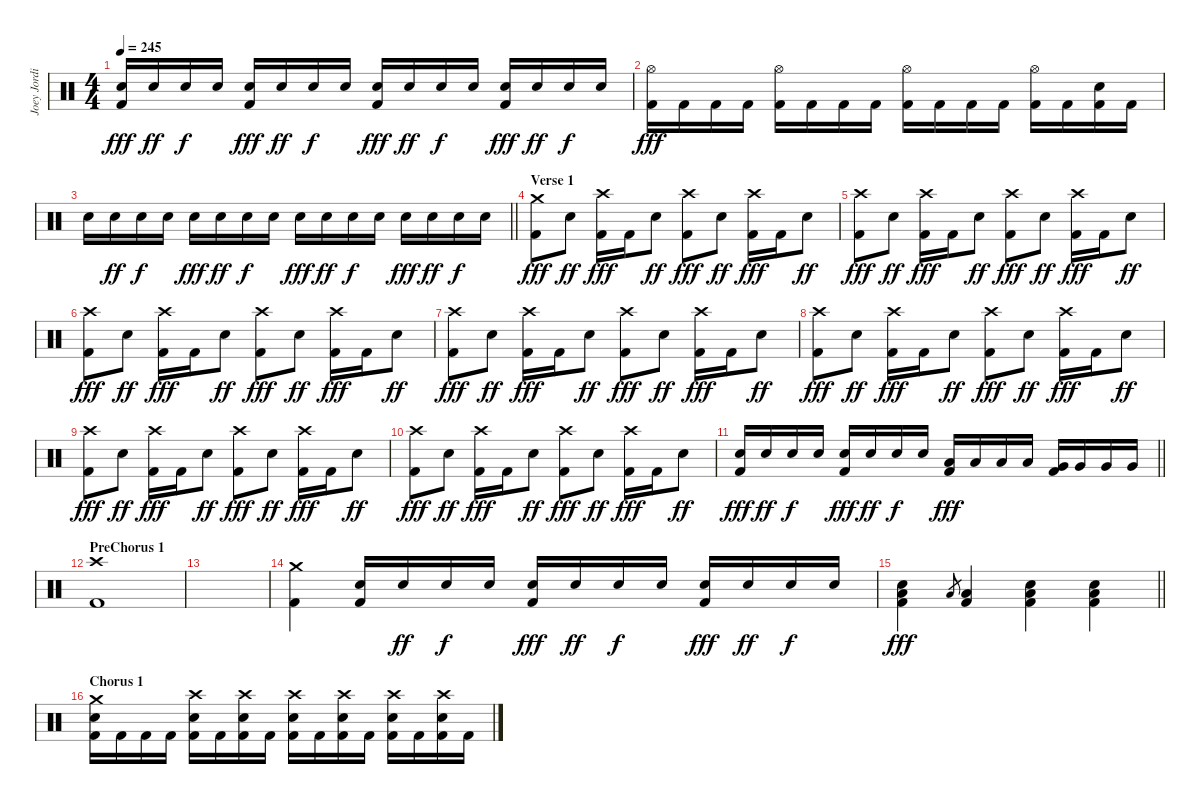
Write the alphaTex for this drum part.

\track ("Joey Jordison" "Joey Jordi") {instrument percussion}
\staff {score}
\articulation defaults
\ts (4 4)
\tempo 245
\clef neutral
\ks c
("Electric Snare (hit)" "Kick (hit) 2").16{dy fff} "Electric Snare (hit)".16{dy ff} "Electric Snare (hit)".16{dy f} "Electric Snare (hit)".16 ("Electric Snare (hit)" "Kick (hit) 2").16{dy fff} "Electric Snare (hit)".16{dy ff} "Electric Snare (hit)".16{dy f} "Electric Snare (hit)".16 ("Electric Snare (hit)" "Kick (hit) 2").16{dy fff} "Electric Snare (hit)".16{dy ff} "Electric Snare (hit)".16{dy f} "Electric Snare (hit)".16 ("Electric Snare (hit)" "Kick (hit) 2").16{dy fff} "Electric Snare (hit)".16{dy ff} "Electric Snare (hit)".16{dy f} "Electric Snare (hit)".16 |
("Hi-Hat (open)" "Kick (hit) 2").16{dy fff} "Kick (hit) 2".16 "Kick (hit) 2".16 "Kick (hit) 2".16 ("Hi-Hat (open)" "Kick (hit) 2").16 "Kick (hit) 2".16 "Kick (hit) 2".16 "Kick (hit) 2".16 ("Hi-Hat (open)" "Kick (hit) 2").16 "Kick (hit) 2".16 "Kick (hit) 2".16 "Kick (hit) 2".16 ("Hi-Hat (open)" "Kick (hit) 2").16 "Kick (hit) 2".16 ("Electric Snare (hit)" "Kick (hit) 2").16 "Kick (hit) 2".16 |
\barLineRight lightlight "Electric Snare (hit)".16 "Electric Snare (hit)".16{dy ff} "Electric Snare (hit)".16{dy f} "Electric Snare (hit)".16 "Electric Snare (hit)".16{dy fff} "Electric Snare (hit)".16{dy ff} "Electric Snare (hit)".16{dy f} "Electric Snare (hit)".16 "Electric Snare (hit)".16{dy fff} "Electric Snare (hit)".16{dy ff} "Electric Snare (hit)".16{dy f} "Electric Snare (hit)".16 "Electric Snare (hit)".16{dy fff} "Electric Snare (hit)".16{dy ff} "Electric Snare (hit)".16{dy f} "Electric Snare (hit)".16
|
\section ("" "Verse 1")
("Crash medium (hit)" "Kick (hit) 2").8{dy fff} "Electric Snare (hit)".8{dy ff} ("Crash high (hit)" "Kick (hit) 2").16{dy fff} "Kick (hit) 2".16 "Electric Snare (hit)".8{dy ff} ("Crash high (hit)" "Kick (hit) 2").8{dy fff} "Electric Snare (hit)".8{dy ff} ("Crash high (hit)" "Kick (hit) 2").16{dy fff} "Kick (hit) 2".16 "Electric Snare (hit)".8{dy ff} |
("Crash high (hit)" "Kick (hit) 2").8{dy fff} "Electric Snare (hit)".8{dy ff} ("Crash high (hit)" "Kick (hit) 2").16{dy fff} "Kick (hit) 2".16 "Electric Snare (hit)".8{dy ff} ("Crash high (hit)" "Kick (hit) 2").8{dy fff} "Electric Snare (hit)".8{dy ff} ("Crash high (hit)" "Kick (hit) 2").16{dy fff} "Kick (hit) 2".16 "Electric Snare (hit)".8{dy ff} |
("Crash high (hit)" "Kick (hit) 2").8{dy fff} "Electric Snare (hit)".8{dy ff} ("Crash high (hit)" "Kick (hit) 2").16{dy fff} "Kick (hit) 2".16 "Electric Snare (hit)".8{dy ff} ("Crash high (hit)" "Kick (hit) 2").8{dy fff} "Electric Snare (hit)".8{dy ff} ("Crash high (hit)" "Kick (hit) 2").16{dy fff} "Kick (hit) 2".16 "Electric Snare (hit)".8{dy ff} |
("Crash high (hit)" "Kick (hit) 2").8{dy fff} "Electric Snare (hit)".8{dy ff} ("Crash high (hit)" "Kick (hit) 2").16{dy fff} "Kick (hit) 2".16 "Electric Snare (hit)".8{dy ff} ("Crash high (hit)" "Kick (hit) 2").8{dy fff} "Electric Snare (hit)".8{dy ff} ("Crash high (hit)" "Kick (hit) 2").16{dy fff} "Kick (hit) 2".16 "Electric Snare (hit)".8{dy ff} |
("Crash high (hit)" "Kick (hit) 2").8{dy fff} "Electric Snare (hit)".8{dy ff} ("Crash high (hit)" "Kick (hit) 2").16{dy fff} "Kick (hit) 2".16 "Electric Snare (hit)".8{dy ff} ("Crash high (hit)" "Kick (hit) 2").8{dy fff} "Electric Snare (hit)".8{dy ff} ("Crash high (hit)" "Kick (hit) 2").16{dy fff} "Kick (hit) 2".16 "Electric Snare (hit)".8{dy ff} |
("Crash high (hit)" "Kick (hit) 2").8{dy fff} "Electric Snare (hit)".8{dy ff} ("Crash high (hit)" "Kick (hit) 2").16{dy fff} "Kick (hit) 2".16 "Electric Snare (hit)".8{dy ff} ("Crash high (hit)" "Kick (hit) 2").8{dy fff} "Electric Snare (hit)".8{dy ff} ("Crash high (hit)" "Kick (hit) 2").16{dy fff} "Kick (hit) 2".16 "Electric Snare (hit)".8{dy ff} |
("Crash high (hit)" "Kick (hit) 2").8{dy fff} "Electric Snare (hit)".8{dy ff} ("Crash high (hit)" "Kick (hit) 2").16{dy fff} "Kick (hit) 2".16 "Electric Snare (hit)".8{dy ff} ("Crash high (hit)" "Kick (hit) 2").8{dy fff} "Electric Snare (hit)".8{dy ff} ("Crash high (hit)" "Kick (hit) 2").16{dy fff} "Kick (hit) 2".16 "Electric Snare (hit)".8{dy ff} |
\barLineRight lightlight
("Electric Snare (hit)" "Kick (hit) 2").16{dy fff} "Electric Snare (hit)".16{dy ff} "Electric Snare (hit)".16{dy f} "Electric Snare (hit)".16 ("Electric Snare (hit)" "Kick (hit) 2").16{dy fff} "Electric Snare (hit)".16{dy ff} "Electric Snare (hit)".16{dy f} "Electric Snare (hit)".16 ("Low Tom (hit)" "Kick (hit) 2").16{dy fff} "Low Tom (hit)".16 "Low Tom (hit)".16 "Low Tom (hit)".16 ("Very Low Tom (hit)" "Kick (hit) 2").16 "Very Low Tom (hit)".16 "Very Low Tom (hit)".16 "Very Low Tom (hit)".16 |
\section ("" "PreChorus 1")
("Crash high (hit)" "Kick (hit) 2").1 |
|
("Crash medium (hit)" "Kick (hit) 2").4 ("Electric Snare (hit)" "Kick (hit) 2").16 "Electric Snare (hit)".16{dy ff} "Electric Snare (hit)".16{dy f} "Electric Snare (hit)".16 ("Electric Snare (hit)" "Kick (hit) 2").16{dy fff} "Electric Snare (hit)".16{dy ff} "Electric Snare (hit)".16{dy f} "Electric Snare (hit)".16 ("Electric Snare (hit)" "Kick (hit) 2").16{dy fff} "Electric Snare (hit)".16{dy ff} "Electric Snare (hit)".16{dy f} "Electric Snare (hit)".16 |
\barLineRight lightlight
("Electric Snare (hit)" "Low Floor Tom (hit)" "Kick (hit) 2").4{dy fff} "Low Floor Tom (hit)".8{gr} ("Low Floor Tom (hit)" "Kick (hit) 2").4 ("Electric Snare (hit)" "Low Floor Tom (hit)" "Kick (hit) 2").4 ("Electric Snare (hit)" "Low Floor Tom (hit)" "Kick (hit) 2").4 |
\section ("" "Chorus 1")
("Crash medium (hit)" "Electric Snare (hit)" "Kick (hit) 2").16 "Kick (hit) 2".16 "Kick (hit) 2".16 "Kick (hit) 2".16 ("Crash high (hit)" "Electric Snare (hit)" "Kick (hit) 2").16 "Kick (hit) 2".16 ("Crash high (hit)" "Electric Snare (hit)" "Kick (hit) 2").16 "Kick (hit) 2".16 ("Crash high (hit)" "Electric Snare (hit)" "Kick (hit) 2").16 "Kick (hit) 2".16 ("Crash high (hit)" "Electric Snare (hit)" "Kick (hit) 2").16 "Kick (hit) 2".16 ("Crash high (hit)" "Electric Snare (hit)" "Kick (hit) 2").16 "Kick (hit) 2".16 ("Crash high (hit)" "Electric Snare (hit)" "Kick (hit) 2").16 "Kick (hit) 2".16
